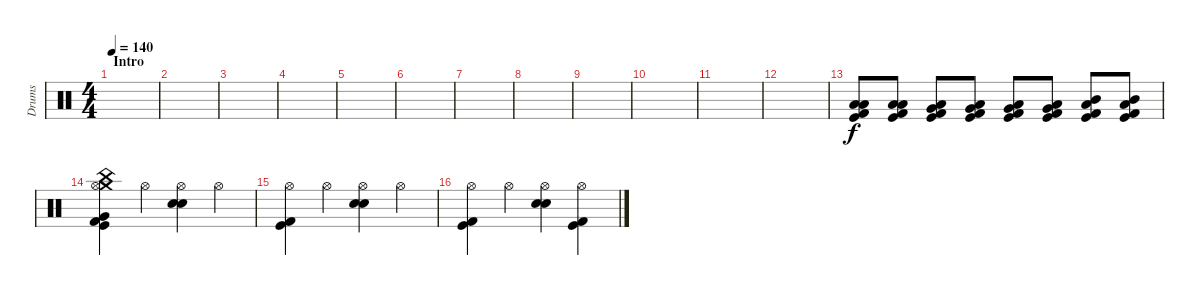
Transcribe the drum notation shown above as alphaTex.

\track ("Drums" "Drums") {instrument percussion}
\staff {score}
\articulation defaults
\ts (4 4)
\section ("" "Intro")
\tempo 140
\clef neutral
\ks c
|
|
|
|
|
|
|
|
|
|
|
|
("Low Floor Tom (hit)" "Low Floor Tom (hit)" "Kick (hit) 2" "Kick (hit)").8 ("Low Floor Tom (hit)" "Low Floor Tom (hit)" "Kick (hit) 2" "Kick (hit)").8 ("Low Floor Tom (hit)" "Very Low Tom (hit)" "Kick (hit) 2" "Kick (hit)").8 ("Low Floor Tom (hit)" "Very Low Tom (hit)" "Kick (hit) 2" "Kick (hit)").8 ("Very Low Tom (hit)" "Low Tom (hit)" "Kick (hit) 2" "Kick (hit)").8 ("Very Low Tom (hit)" "Low Tom (hit)" "Kick (hit) 2" "Kick (hit)").8 ("Low Tom (hit)" "Mid Tom (hit)" "Kick (hit) 2" "Kick (hit)").8 ("Low Tom (hit)" "Mid Tom (hit)" "Kick (hit) 2" "Kick (hit)").8 |
("Crash medium (hit)" "China (hit)" "Hi-Hat (open)" "Very Low Tom (hit)" "Kick (hit) 2" "Kick (hit)").4 "Hi-Hat (open)".4 ("Hi-Hat (open)" "Electric Snare (hit)" "Snare (hit) 2").4 "Hi-Hat (open)".4 |
("Hi-Hat (open)" "Kick (hit) 2" "Kick (hit)").4 "Hi-Hat (open)".4 ("Hi-Hat (open)" "Snare (hit) 2" "Electric Snare (hit)").4 "Hi-Hat (open)".4 |
("Hi-Hat (open)" "Kick (hit) 2" "Kick (hit)").4 "Hi-Hat (open)".4 ("Hi-Hat (open)" "Electric Snare (hit)" "Snare (hit) 2").4 ("Hi-Hat (open)" "Kick (hit) 2" "Kick (hit)").4
